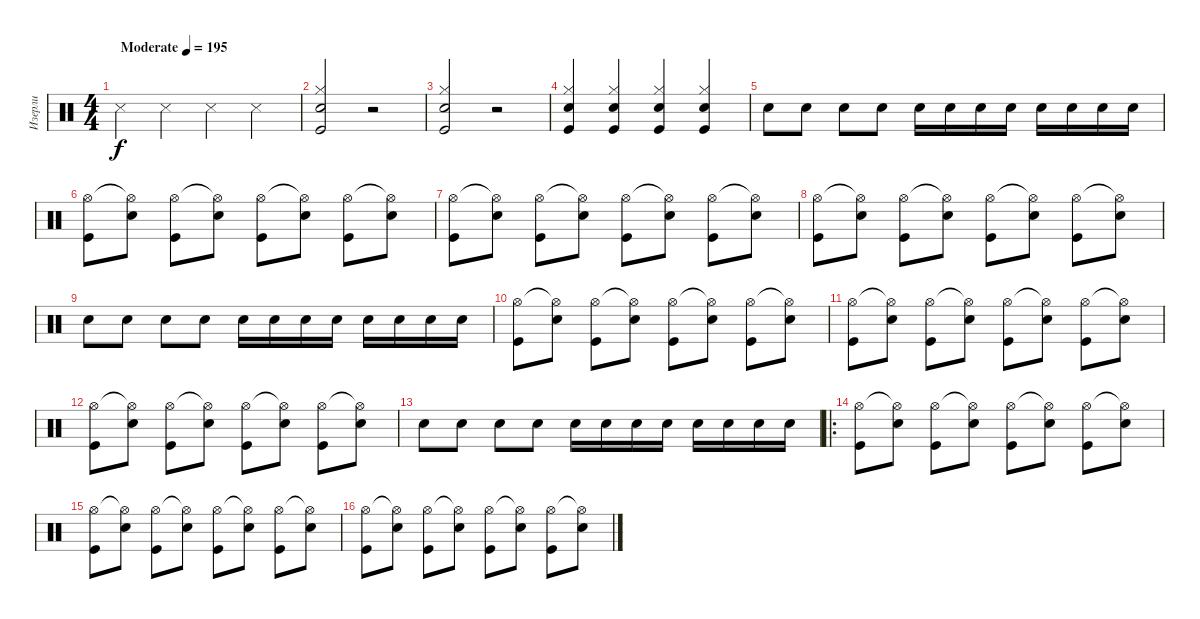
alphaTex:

\track ("Изерли" "Изерли") {instrument percussion}
\staff {score}
\articulation defaults
\ts (4 4)
\tempo (195 "Moderate")
\clef neutral
\ks c "Snare (side stick) 3".4{dy f} "Snare (side stick) 3".4 "Snare (side stick) 3".4 "Snare (side stick) 3".4
|
("Kick (hit)" "Hi-Hat (closed)" "Snare (hit) 2").2 r.2 |
("Kick (hit)" "Hi-Hat (closed)" "Snare (hit) 2").2 r.2 |
("Hi-Hat (closed)" "Snare (hit) 2" "Kick (hit)").4 ("Hi-Hat (closed)" "Snare (hit) 2" "Kick (hit)").4 ("Hi-Hat (closed)" "Snare (hit) 2" "Kick (hit)").4 ("Hi-Hat (closed)" "Snare (hit) 2" "Kick (hit)").4 |
"Snare (hit) 2".8 "Snare (hit) 2".8 "Snare (hit) 2".8 "Snare (hit) 2".8 "Snare (hit) 2".16 "Snare (hit) 2".16 "Snare (hit) 2".16 "Snare (hit) 2".16 "Snare (hit) 2".16 "Snare (hit) 2".16 "Snare (hit) 2".16 "Snare (hit) 2".16 |
("Kick (hit)" "Hi-Hat (open)").8 ("Snare (hit) 2" "Hi-Hat (open)"{t}).8 ("Kick (hit)" "Hi-Hat (open)").8 ("Snare (hit) 2" "Hi-Hat (open)"{t}).8 ("Kick (hit)" "Hi-Hat (open)").8 ("Snare (hit) 2" "Hi-Hat (open)"{t}).8 ("Kick (hit)" "Hi-Hat (open)").8 ("Snare (hit) 2" "Hi-Hat (open)"{t}).8 |
("Kick (hit)" "Hi-Hat (open)").8 ("Snare (hit) 2" "Hi-Hat (open)"{t}).8 ("Kick (hit)" "Hi-Hat (open)").8 ("Snare (hit) 2" "Hi-Hat (open)"{t}).8 ("Kick (hit)" "Hi-Hat (open)").8 ("Snare (hit) 2" "Hi-Hat (open)"{t}).8 ("Kick (hit)" "Hi-Hat (open)").8 ("Snare (hit) 2" "Hi-Hat (open)"{t}).8 |
("Kick (hit)" "Hi-Hat (open)").8 ("Snare (hit) 2" "Hi-Hat (open)"{t}).8 ("Kick (hit)" "Hi-Hat (open)").8 ("Snare (hit) 2" "Hi-Hat (open)"{t}).8 ("Kick (hit)" "Hi-Hat (open)").8 ("Snare (hit) 2" "Hi-Hat (open)"{t}).8 ("Kick (hit)" "Hi-Hat (open)").8 ("Snare (hit) 2" "Hi-Hat (open)"{t}).8 |
"Snare (hit) 2".8 "Snare (hit) 2".8 "Snare (hit) 2".8 "Snare (hit) 2".8 "Snare (hit) 2".16 "Snare (hit) 2".16 "Snare (hit) 2".16 "Snare (hit) 2".16 "Snare (hit) 2".16 "Snare (hit) 2".16 "Snare (hit) 2".16 "Snare (hit) 2".16 |
("Kick (hit)" "Hi-Hat (open)").8 ("Snare (hit) 2" "Hi-Hat (open)"{t}).8 ("Kick (hit)" "Hi-Hat (open)").8 ("Snare (hit) 2" "Hi-Hat (open)"{t}).8 ("Kick (hit)" "Hi-Hat (open)").8 ("Snare (hit) 2" "Hi-Hat (open)"{t}).8 ("Kick (hit)" "Hi-Hat (open)").8 ("Snare (hit) 2" "Hi-Hat (open)"{t}).8 |
("Kick (hit)" "Hi-Hat (open)").8 ("Snare (hit) 2" "Hi-Hat (open)"{t}).8 ("Kick (hit)" "Hi-Hat (open)").8 ("Snare (hit) 2" "Hi-Hat (open)"{t}).8 ("Kick (hit)" "Hi-Hat (open)").8 ("Snare (hit) 2" "Hi-Hat (open)"{t}).8 ("Kick (hit)" "Hi-Hat (open)").8 ("Snare (hit) 2" "Hi-Hat (open)"{t}).8 |
("Kick (hit)" "Hi-Hat (open)").8 ("Snare (hit) 2" "Hi-Hat (open)"{t}).8 ("Kick (hit)" "Hi-Hat (open)").8 ("Snare (hit) 2" "Hi-Hat (open)"{t}).8 ("Kick (hit)" "Hi-Hat (open)").8 ("Snare (hit) 2" "Hi-Hat (open)"{t}).8 ("Kick (hit)" "Hi-Hat (open)").8 ("Snare (hit) 2" "Hi-Hat (open)"{t}).8 |
"Snare (hit) 2".8 "Snare (hit) 2".8 "Snare (hit) 2".8 "Snare (hit) 2".8 "Snare (hit) 2".16 "Snare (hit) 2".16 "Snare (hit) 2".16 "Snare (hit) 2".16 "Snare (hit) 2".16 "Snare (hit) 2".16 "Snare (hit) 2".16 "Snare (hit) 2".16 |
\ro
("Kick (hit)" "Hi-Hat (open)").8 ("Snare (hit) 2" "Hi-Hat (open)"{t}).8 ("Kick (hit)" "Hi-Hat (open)").8 ("Snare (hit) 2" "Hi-Hat (open)"{t}).8 ("Kick (hit)" "Hi-Hat (open)").8 ("Snare (hit) 2" "Hi-Hat (open)"{t}).8 ("Kick (hit)" "Hi-Hat (open)").8 ("Snare (hit) 2" "Hi-Hat (open)"{t}).8 |
("Kick (hit)" "Hi-Hat (open)").8 ("Snare (hit) 2" "Hi-Hat (open)"{t}).8 ("Kick (hit)" "Hi-Hat (open)").8 ("Snare (hit) 2" "Hi-Hat (open)"{t}).8 ("Kick (hit)" "Hi-Hat (open)").8 ("Snare (hit) 2" "Hi-Hat (open)"{t}).8 ("Kick (hit)" "Hi-Hat (open)").8 ("Snare (hit) 2" "Hi-Hat (open)"{t}).8 |
("Kick (hit)" "Hi-Hat (open)").8 ("Snare (hit) 2" "Hi-Hat (open)"{t}).8 ("Kick (hit)" "Hi-Hat (open)").8 ("Snare (hit) 2" "Hi-Hat (open)"{t}).8 ("Kick (hit)" "Hi-Hat (open)").8 ("Snare (hit) 2" "Hi-Hat (open)"{t}).8 ("Kick (hit)" "Hi-Hat (open)").8 ("Snare (hit) 2" "Hi-Hat (open)"{t}).8
